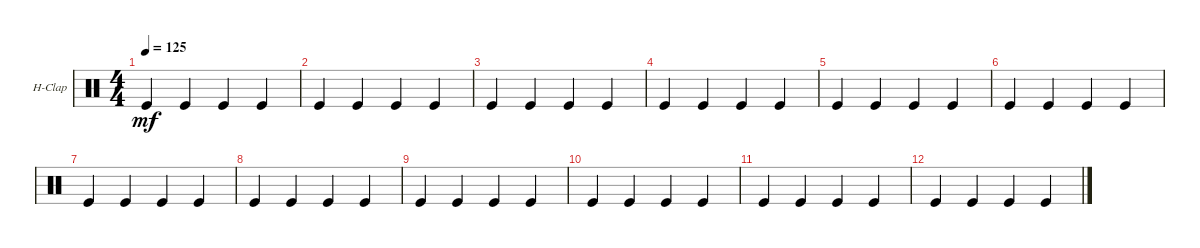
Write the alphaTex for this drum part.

\bracketExtendMode groupsimilarinstruments
\firstSystemTrackNameOrientation horizontal
\otherSystemsTrackNameOrientation horizontal
\track ("Hand Clap" "H-Clap") {instrument percussion}
\staff {score}
\articulation defaults
\ts (4 4)
\tempo 125
\clef neutral
\ks c "Kick (hit)".4{dy mf} "Kick (hit)".4 "Kick (hit)".4 "Kick (hit)".4
|
"Kick (hit)".4 "Kick (hit)".4 "Kick (hit)".4 "Kick (hit)".4 |
"Kick (hit)".4 "Kick (hit)".4 "Kick (hit)".4 "Kick (hit)".4 |
"Kick (hit)".4 "Kick (hit)".4 "Kick (hit)".4 "Kick (hit)".4 |
"Kick (hit)".4 "Kick (hit)".4 "Kick (hit)".4 "Kick (hit)".4 |
"Kick (hit)".4 "Kick (hit)".4 "Kick (hit)".4 "Kick (hit)".4 |
"Kick (hit)".4 "Kick (hit)".4 "Kick (hit)".4 "Kick (hit)".4 |
"Kick (hit)".4 "Kick (hit)".4 "Kick (hit)".4 "Kick (hit)".4 |
"Kick (hit)".4 "Kick (hit)".4 "Kick (hit)".4 "Kick (hit)".4 |
"Kick (hit)".4 "Kick (hit)".4 "Kick (hit)".4 "Kick (hit)".4 |
"Kick (hit)".4 "Kick (hit)".4 "Kick (hit)".4 "Kick (hit)".4 |
"Kick (hit)".4 "Kick (hit)".4 "Kick (hit)".4 "Kick (hit)".4
